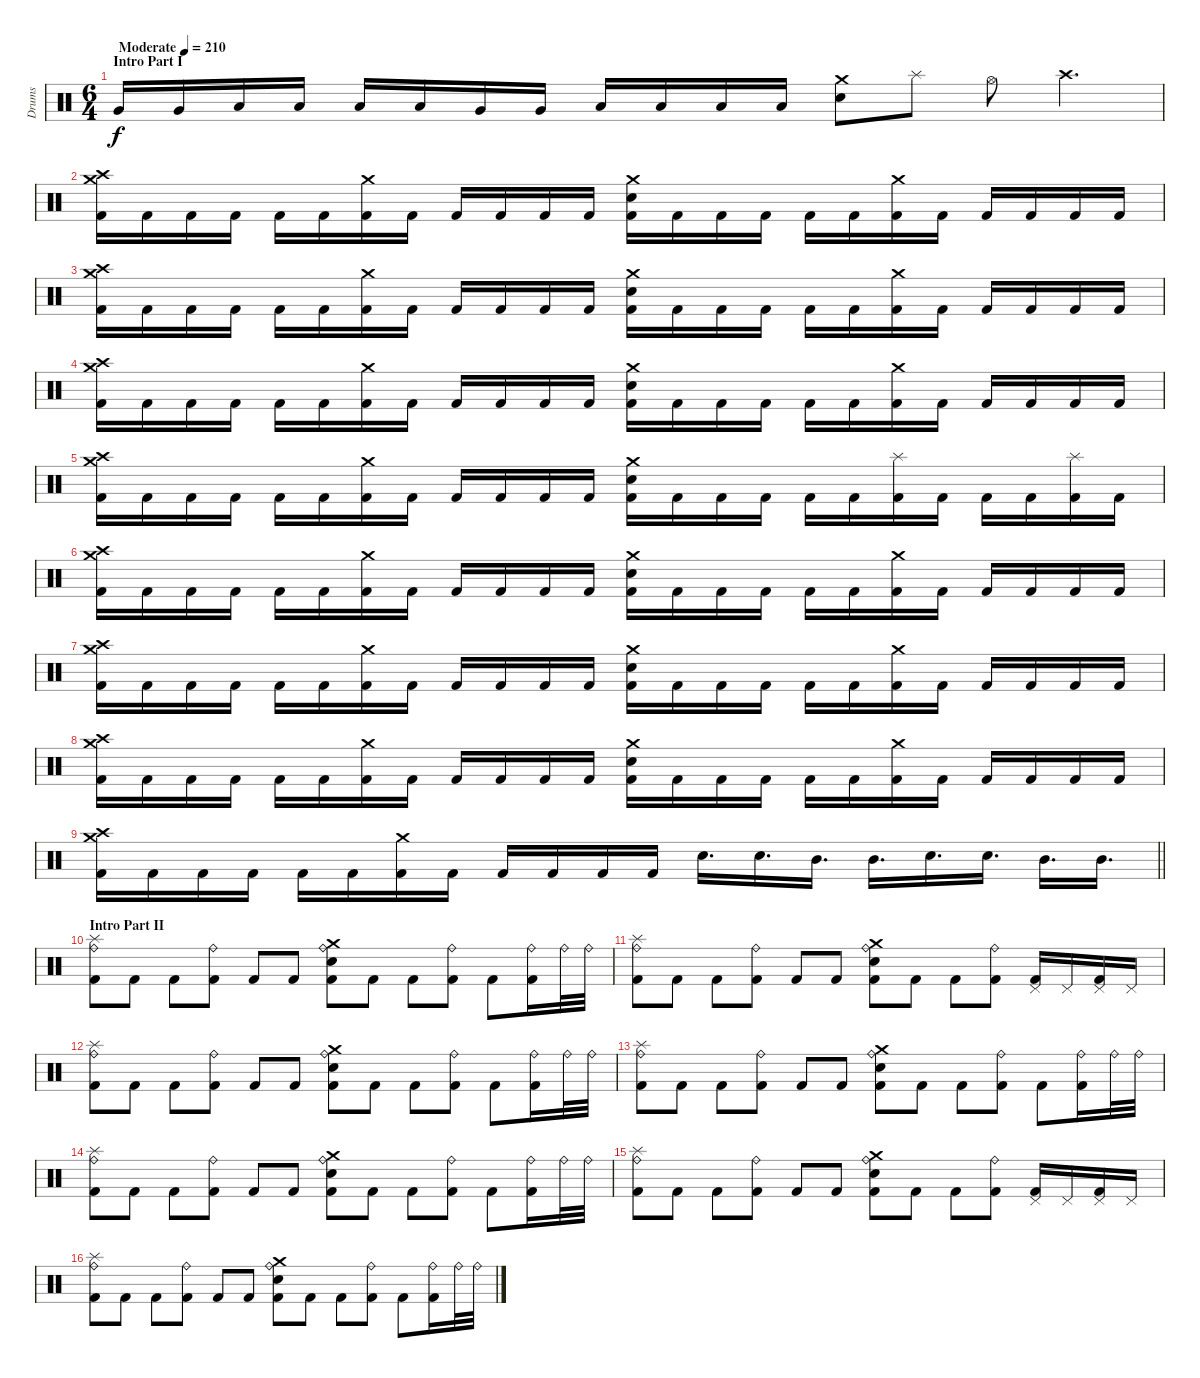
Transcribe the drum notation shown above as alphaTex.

\track ("Drums" "Drums") {instrument percussion}
\staff {score}
\articulation defaults
\ts (6 4)
\section ("" "Intro Part I")
\tempo (210 "Moderate")
\clef neutral
\ks c "Very Low Tom (hit)".16{dy f} "Very Low Tom (hit)".16 "Low Floor Tom (hit)".16 "Low Floor Tom (hit)".16 "Low Floor Tom (hit)".16 "Low Floor Tom (hit)".16 "Very Low Tom (hit)".16 "Very Low Tom (hit)".16 "Low Floor Tom (hit)".16 "Low Floor Tom (hit)".16 "Low Floor Tom (hit)".16 "Low Floor Tom (hit)".16
("Crash medium (hit)" "Electric Snare (hit)").8 "Splash (hit)".8 "Hi-Hat (open)".8 "Crash high (hit)".4{d} |
("Crash high (hit)" "Crash medium (hit)" "Kick (hit) 2").16 "Kick (hit) 2".16 "Kick (hit) 2".16 "Kick (hit) 2".16 "Kick (hit) 2".16 "Kick (hit) 2".16 ("Crash medium (hit)" "Kick (hit) 2").16 "Kick (hit) 2".16 "Kick (hit) 2".16 "Kick (hit) 2".16 "Kick (hit) 2".16 "Kick (hit) 2".16 ("Crash medium (hit)" "Electric Snare (hit)" "Kick (hit) 2").16 "Kick (hit) 2".16 "Kick (hit) 2".16 "Kick (hit) 2".16 "Kick (hit) 2".16 "Kick (hit) 2".16 ("Crash medium (hit)" "Kick (hit) 2").16 "Kick (hit) 2".16 "Kick (hit) 2".16 "Kick (hit) 2".16 "Kick (hit) 2".16 "Kick (hit) 2".16 |
("Crash high (hit)" "Crash medium (hit)" "Kick (hit) 2").16 "Kick (hit) 2".16 "Kick (hit) 2".16 "Kick (hit) 2".16 "Kick (hit) 2".16 "Kick (hit) 2".16 ("Crash medium (hit)" "Kick (hit) 2").16 "Kick (hit) 2".16 "Kick (hit) 2".16 "Kick (hit) 2".16 "Kick (hit) 2".16 "Kick (hit) 2".16 ("Crash medium (hit)" "Electric Snare (hit)" "Kick (hit) 2").16 "Kick (hit) 2".16 "Kick (hit) 2".16 "Kick (hit) 2".16 "Kick (hit) 2".16 "Kick (hit) 2".16 ("Crash medium (hit)" "Kick (hit) 2").16 "Kick (hit) 2".16 "Kick (hit) 2".16 "Kick (hit) 2".16 "Kick (hit) 2".16 "Kick (hit) 2".16 |
("Crash high (hit)" "Crash medium (hit)" "Kick (hit) 2").16 "Kick (hit) 2".16 "Kick (hit) 2".16 "Kick (hit) 2".16 "Kick (hit) 2".16 "Kick (hit) 2".16 ("Crash medium (hit)" "Kick (hit) 2").16 "Kick (hit) 2".16 "Kick (hit) 2".16 "Kick (hit) 2".16 "Kick (hit) 2".16 "Kick (hit) 2".16 ("Crash medium (hit)" "Electric Snare (hit)" "Kick (hit) 2").16 "Kick (hit) 2".16 "Kick (hit) 2".16 "Kick (hit) 2".16 "Kick (hit) 2".16 "Kick (hit) 2".16 ("Crash medium (hit)" "Kick (hit) 2").16 "Kick (hit) 2".16 "Kick (hit) 2".16 "Kick (hit) 2".16 "Kick (hit) 2".16 "Kick (hit) 2".16 |
("Crash high (hit)" "Crash medium (hit)" "Kick (hit) 2").16 "Kick (hit) 2".16 "Kick (hit) 2".16 "Kick (hit) 2".16 "Kick (hit) 2".16 "Kick (hit) 2".16 ("Crash medium (hit)" "Kick (hit) 2").16 "Kick (hit) 2".16 "Kick (hit) 2".16 "Kick (hit) 2".16 "Kick (hit) 2".16 "Kick (hit) 2".16 ("Crash medium (hit)" "Electric Snare (hit)" "Kick (hit) 2").16 "Kick (hit) 2".16 "Kick (hit) 2".16 "Kick (hit) 2".16 "Kick (hit) 2".16 "Kick (hit) 2".16 ("Splash (hit)" "Kick (hit) 2").16 "Kick (hit) 2".16 "Kick (hit) 2".16 "Kick (hit) 2".16 ("Splash (hit)" "Kick (hit) 2").16 "Kick (hit) 2".16 |
("Crash high (hit)" "Crash medium (hit)" "Kick (hit) 2").16 "Kick (hit) 2".16 "Kick (hit) 2".16 "Kick (hit) 2".16 "Kick (hit) 2".16 "Kick (hit) 2".16 ("Crash medium (hit)" "Kick (hit) 2").16 "Kick (hit) 2".16 "Kick (hit) 2".16 "Kick (hit) 2".16 "Kick (hit) 2".16 "Kick (hit) 2".16 ("Crash medium (hit)" "Electric Snare (hit)" "Kick (hit) 2").16 "Kick (hit) 2".16 "Kick (hit) 2".16 "Kick (hit) 2".16 "Kick (hit) 2".16 "Kick (hit) 2".16 ("Crash medium (hit)" "Kick (hit) 2").16 "Kick (hit) 2".16 "Kick (hit) 2".16 "Kick (hit) 2".16 "Kick (hit) 2".16 "Kick (hit) 2".16 |
("Crash high (hit)" "Crash medium (hit)" "Kick (hit) 2").16 "Kick (hit) 2".16 "Kick (hit) 2".16 "Kick (hit) 2".16 "Kick (hit) 2".16 "Kick (hit) 2".16 ("Crash medium (hit)" "Kick (hit) 2").16 "Kick (hit) 2".16 "Kick (hit) 2".16 "Kick (hit) 2".16 "Kick (hit) 2".16 "Kick (hit) 2".16 ("Crash medium (hit)" "Electric Snare (hit)" "Kick (hit) 2").16 "Kick (hit) 2".16 "Kick (hit) 2".16 "Kick (hit) 2".16 "Kick (hit) 2".16 "Kick (hit) 2".16 ("Crash medium (hit)" "Kick (hit) 2").16 "Kick (hit) 2".16 "Kick (hit) 2".16 "Kick (hit) 2".16 "Kick (hit) 2".16 "Kick (hit) 2".16 |
("Crash high (hit)" "Crash medium (hit)" "Kick (hit) 2").16 "Kick (hit) 2".16 "Kick (hit) 2".16 "Kick (hit) 2".16 "Kick (hit) 2".16 "Kick (hit) 2".16 ("Crash medium (hit)" "Kick (hit) 2").16 "Kick (hit) 2".16 "Kick (hit) 2".16 "Kick (hit) 2".16 "Kick (hit) 2".16 "Kick (hit) 2".16 ("Crash medium (hit)" "Electric Snare (hit)" "Kick (hit) 2").16 "Kick (hit) 2".16 "Kick (hit) 2".16 "Kick (hit) 2".16 "Kick (hit) 2".16 "Kick (hit) 2".16 ("Crash medium (hit)" "Kick (hit) 2").16 "Kick (hit) 2".16 "Kick (hit) 2".16 "Kick (hit) 2".16 "Kick (hit) 2".16 "Kick (hit) 2".16 |
\barLineRight lightlight
("Crash high (hit)" "Crash medium (hit)" "Kick (hit) 2").16 "Kick (hit) 2".16 "Kick (hit) 2".16 "Kick (hit) 2".16 "Kick (hit) 2".16 "Kick (hit) 2".16 ("Crash medium (hit)" "Kick (hit) 2").16 "Kick (hit) 2".16 "Kick (hit) 2".16 "Kick (hit) 2".16 "Kick (hit) 2".16 "Kick (hit) 2".16 "Electric Snare (hit)".16{d} "Electric Snare (hit)".16{d} "Mid Tom (hit)".16{d} "Mid Tom (hit)".16{d} "Electric Snare (hit)".16{d} "Electric Snare (hit)".16{d} "Mid Tom (hit)".16{d} "Mid Tom (hit)".16{d} |
\section ("" "Intro Part II")
("Splash (hit)" "Ride (bell)" "Kick (hit) 2").8 "Kick (hit) 2".8 "Kick (hit) 2".8 ("Ride (bell)" "Kick (hit) 2").8 "Kick (hit) 2".8 "Kick (hit) 2".8 ("Crash medium (hit)" "Ride (bell)" "Electric Snare (hit)" "Kick (hit) 2").8 "Kick (hit) 2".8 "Kick (hit) 2".8 ("Ride (bell)" "Kick (hit) 2").8 "Kick (hit) 2".8 ("Ride (bell)" "Kick (hit) 2").16 "Ride (bell)".32 "Ride (bell)".32 |
("Splash (hit)" "Ride (bell)" "Kick (hit) 2").8 "Kick (hit) 2".8 "Kick (hit) 2".8 ("Ride (bell)" "Kick (hit) 2").8 "Kick (hit) 2".8 "Kick (hit) 2".8 ("Crash medium (hit)" "Ride (bell)" "Electric Snare (hit)" "Kick (hit) 2").8 "Kick (hit) 2".8 "Kick (hit) 2".8 ("Ride (bell)" "Kick (hit) 2").8 ("Pedal Hi-Hat (hit)" "Kick (hit) 2").16 "Pedal Hi-Hat (hit)".16 ("Pedal Hi-Hat (hit)" "Kick (hit) 2").16 "Pedal Hi-Hat (hit)".16 |
("Splash (hit)" "Ride (bell)" "Kick (hit) 2").8 "Kick (hit) 2".8 "Kick (hit) 2".8 ("Ride (bell)" "Kick (hit) 2").8 "Kick (hit) 2".8 "Kick (hit) 2".8 ("Crash medium (hit)" "Ride (bell)" "Electric Snare (hit)" "Kick (hit) 2").8 "Kick (hit) 2".8 "Kick (hit) 2".8 ("Ride (bell)" "Kick (hit) 2").8 "Kick (hit) 2".8 ("Ride (bell)" "Kick (hit) 2").16 "Ride (bell)".32 "Ride (bell)".32 |
("Splash (hit)" "Ride (bell)" "Kick (hit) 2").8 "Kick (hit) 2".8 "Kick (hit) 2".8 ("Ride (bell)" "Kick (hit) 2").8 "Kick (hit) 2".8 "Kick (hit) 2".8 ("Crash medium (hit)" "Ride (bell)" "Electric Snare (hit)" "Kick (hit) 2").8 "Kick (hit) 2".8 "Kick (hit) 2".8 ("Ride (bell)" "Kick (hit) 2").8 "Kick (hit) 2".8 ("Ride (bell)" "Kick (hit) 2").16 "Ride (bell)".32 "Ride (bell)".32 |
("Splash (hit)" "Ride (bell)" "Kick (hit) 2").8 "Kick (hit) 2".8 "Kick (hit) 2".8 ("Ride (bell)" "Kick (hit) 2").8 "Kick (hit) 2".8 "Kick (hit) 2".8 ("Crash medium (hit)" "Ride (bell)" "Electric Snare (hit)" "Kick (hit) 2").8 "Kick (hit) 2".8 "Kick (hit) 2".8 ("Ride (bell)" "Kick (hit) 2").8 "Kick (hit) 2".8 ("Ride (bell)" "Kick (hit) 2").16 "Ride (bell)".32 "Ride (bell)".32 |
("Splash (hit)" "Ride (bell)" "Kick (hit) 2").8 "Kick (hit) 2".8 "Kick (hit) 2".8 ("Ride (bell)" "Kick (hit) 2").8 "Kick (hit) 2".8 "Kick (hit) 2".8 ("Crash medium (hit)" "Ride (bell)" "Electric Snare (hit)" "Kick (hit) 2").8 "Kick (hit) 2".8 "Kick (hit) 2".8 ("Ride (bell)" "Kick (hit) 2").8 ("Pedal Hi-Hat (hit)" "Kick (hit) 2").16 "Pedal Hi-Hat (hit)".16 ("Pedal Hi-Hat (hit)" "Kick (hit) 2").16 "Pedal Hi-Hat (hit)".16 |
("Splash (hit)" "Ride (bell)" "Kick (hit) 2").8 "Kick (hit) 2".8 "Kick (hit) 2".8 ("Ride (bell)" "Kick (hit) 2").8 "Kick (hit) 2".8 "Kick (hit) 2".8 ("Crash medium (hit)" "Ride (bell)" "Electric Snare (hit)" "Kick (hit) 2").8 "Kick (hit) 2".8 "Kick (hit) 2".8 ("Ride (bell)" "Kick (hit) 2").8 "Kick (hit) 2".8 ("Ride (bell)" "Kick (hit) 2").16 "Ride (bell)".32 "Ride (bell)".32
